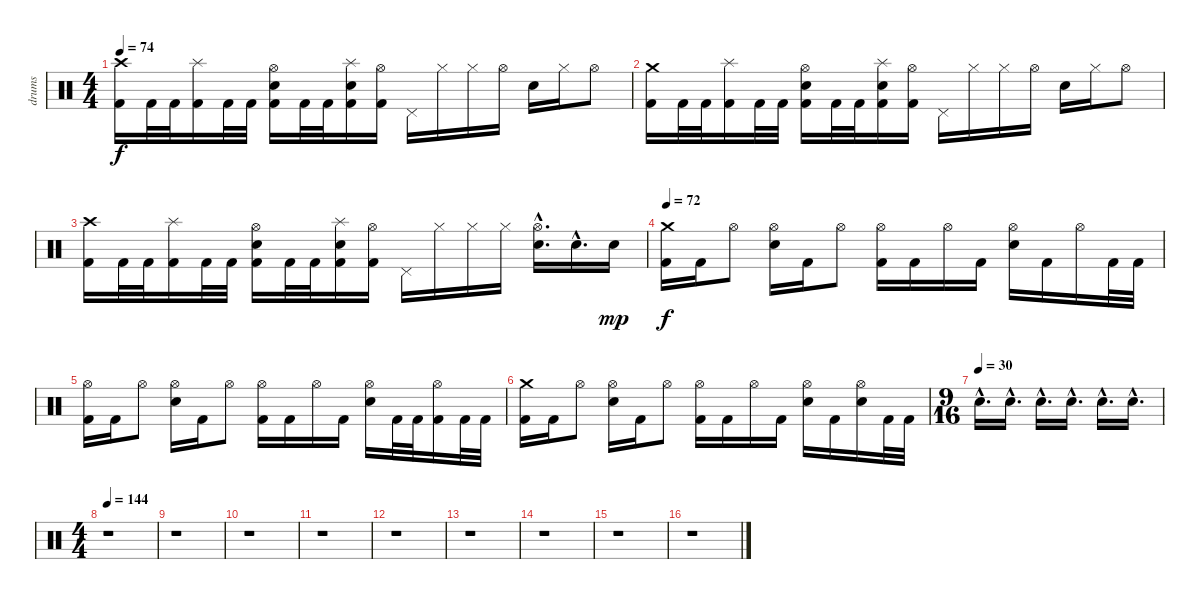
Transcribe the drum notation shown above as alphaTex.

\track ("drums" "drums") {instrument percussion}
\staff {score}
\articulation defaults
\ts (4 4)
\tempo 74
\clef neutral
\ks c
("Crash high (hit)" "Kick (hit) 2").16{dy f} "Kick (hit) 2".32 "Kick (hit) 2".32 ("Splash (hit)" "Kick (hit) 2").16 "Kick (hit) 2".32 "Kick (hit) 2".32 ("Hi-Hat (open)" "Electric Snare (hit)" "Kick (hit) 2").16 "Kick (hit) 2".32 "Kick (hit) 2".32 ("Splash (hit)" "Electric Snare (hit)" "Kick (hit) 2").16 ("Hi-Hat (open)" "Kick (hit) 2").16 "Pedal Hi-Hat (hit)".16 "Hi-Hat (closed)".16 "Hi-Hat (closed)".16 "Hi-Hat (open)".16 "Electric Snare (hit)".16 "Hi-Hat (closed)".16 "Hi-Hat (open)".8 |
("Crash medium (hit)" "Kick (hit) 2").16 "Kick (hit) 2".32 "Kick (hit) 2".32 ("Splash (hit)" "Kick (hit) 2").16 "Kick (hit) 2".32 "Kick (hit) 2".32 ("Hi-Hat (open)" "Electric Snare (hit)" "Kick (hit) 2").16 "Kick (hit) 2".32 "Kick (hit) 2".32 ("Splash (hit)" "Electric Snare (hit)" "Kick (hit) 2").16 ("Hi-Hat (open)" "Kick (hit) 2").16 "Pedal Hi-Hat (hit)".16 "Hi-Hat (closed)".16 "Hi-Hat (closed)".16 "Hi-Hat (open)".16 "Electric Snare (hit)".16 "Hi-Hat (closed)".16 "Hi-Hat (open)".8 |
("Crash high (hit)" "Kick (hit) 2").16 "Kick (hit) 2".32 "Kick (hit) 2".32 ("Splash (hit)" "Kick (hit) 2").16 "Kick (hit) 2".32 "Kick (hit) 2".32 ("Hi-Hat (open)" "Electric Snare (hit)" "Kick (hit) 2").16 "Kick (hit) 2".32 "Kick (hit) 2".32 ("Splash (hit)" "Electric Snare (hit)" "Kick (hit) 2").16 ("Hi-Hat (open)" "Kick (hit) 2").16 "Pedal Hi-Hat (hit)".16 "Hi-Hat (closed)".16 "Hi-Hat (closed)".16 "Hi-Hat (closed)".16 ("Hi-Hat (open)"{hac} "Electric Snare (hit)"{hac}).16{d} "Electric Snare (hit)"{hac}.16{d} "Electric Snare (hit)".16{dy mp} |
\tempo 72
("Crash medium (hit)" "Kick (hit) 2").16{dy f} "Kick (hit) 2".16 "Hi-Hat (open)".8 ("Hi-Hat (open)" "Electric Snare (hit)").16 "Kick (hit) 2".16 "Hi-Hat (open)".8 ("Hi-Hat (open)" "Kick (hit) 2").16 "Kick (hit) 2".16 "Hi-Hat (open)".16 "Kick (hit) 2".16 ("Hi-Hat (open)" "Electric Snare (hit)").16 "Kick (hit) 2".16 "Hi-Hat (open)".16 "Kick (hit) 2".32 "Kick (hit) 2".32 |
("Hi-Hat (open)" "Kick (hit) 2").16 "Kick (hit) 2".16 "Hi-Hat (open)".8 ("Hi-Hat (open)" "Electric Snare (hit)").16 "Kick (hit) 2".16 "Hi-Hat (open)".8 ("Hi-Hat (open)" "Kick (hit) 2").16 "Kick (hit) 2".16 "Hi-Hat (open)".16 "Kick (hit) 2".16 ("Hi-Hat (open)" "Electric Snare (hit)").16 "Kick (hit) 2".32 "Kick (hit) 2".32 ("Hi-Hat (open)" "Kick (hit) 2").16 "Kick (hit) 2".32 "Kick (hit) 2".32 |
("Crash medium (hit)" "Kick (hit) 2").16 "Kick (hit) 2".16 "Hi-Hat (open)".8 ("Hi-Hat (open)" "Electric Snare (hit)").16 "Kick (hit) 2".16 "Hi-Hat (open)".8 ("Hi-Hat (open)" "Kick (hit) 2").16 "Kick (hit) 2".16 "Hi-Hat (open)".16 "Kick (hit) 2".16 ("Hi-Hat (open)" "Electric Snare (hit)").16 "Kick (hit) 2".16 ("Hi-Hat (open)" "Electric Snare (hit)").16 "Kick (hit) 2".32 "Kick (hit) 2".32 |
\ts (9 16)
\tempo (30)
"Electric Snare (hit)"{hac}.16{d} "Electric Snare (hit)"{hac}.16{d} "Electric Snare (hit)"{hac}.16{d} "Electric Snare (hit)"{hac}.16{d} "Electric Snare (hit)"{hac}.16{d} "Electric Snare (hit)"{hac}.16{d} |
\ts (4 4)
\tempo 144
r.1 |
r.1 |
r.1 |
r.1 |
r.1 |
r.1 |
r.1 |
r.1 |
r.1
